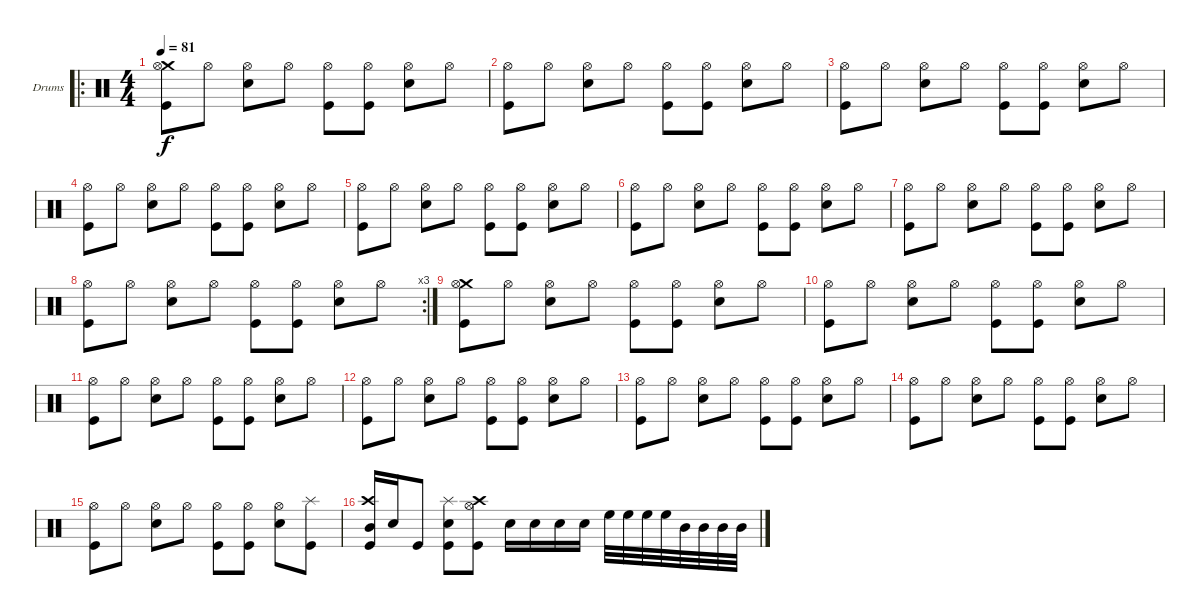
\bracketExtendMode groupsimilarinstruments
\firstSystemTrackNameOrientation horizontal
\otherSystemsTrackNameOrientation horizontal
\track ("Drumkit" "Drums") {instrument percussion}
\staff {score}
\articulation defaults
\ro
\ts (4 4)
\tempo 81
\clef neutral
\ks c
("Crash medium (hit)" "Hi-Hat (open)" "Kick (hit)").8{dy f} "Hi-Hat (open)".8 ("Hi-Hat (open)" "Snare (hit) 2").8 "Hi-Hat (open)".8 ("Hi-Hat (open)" "Kick (hit)").8 ("Hi-Hat (open)" "Kick (hit)").8 ("Hi-Hat (open)" "Snare (hit) 2").8 "Hi-Hat (open)".8 |
("Hi-Hat (open)" "Kick (hit)").8 "Hi-Hat (open)".8 ("Hi-Hat (open)" "Snare (hit) 2").8 "Hi-Hat (open)".8 ("Hi-Hat (open)" "Kick (hit)").8 ("Hi-Hat (open)" "Kick (hit)").8 ("Hi-Hat (open)" "Snare (hit) 2").8 "Hi-Hat (open)".8 |
("Hi-Hat (open)" "Kick (hit)").8 "Hi-Hat (open)".8 ("Hi-Hat (open)" "Snare (hit) 2").8 "Hi-Hat (open)".8 ("Hi-Hat (open)" "Kick (hit)").8 ("Hi-Hat (open)" "Kick (hit)").8 ("Hi-Hat (open)" "Snare (hit) 2").8 "Hi-Hat (open)".8 |
("Hi-Hat (open)" "Kick (hit)").8 "Hi-Hat (open)".8 ("Hi-Hat (open)" "Snare (hit) 2").8 "Hi-Hat (open)".8 ("Hi-Hat (open)" "Kick (hit)").8 ("Hi-Hat (open)" "Kick (hit)").8 ("Hi-Hat (open)" "Snare (hit) 2").8 "Hi-Hat (open)".8 |
("Hi-Hat (open)" "Kick (hit)").8 "Hi-Hat (open)".8 ("Hi-Hat (open)" "Snare (hit) 2").8 "Hi-Hat (open)".8 ("Hi-Hat (open)" "Kick (hit)").8 ("Hi-Hat (open)" "Kick (hit)").8 ("Hi-Hat (open)" "Snare (hit) 2").8 "Hi-Hat (open)".8 |
("Hi-Hat (open)" "Kick (hit)").8 "Hi-Hat (open)".8 ("Hi-Hat (open)" "Snare (hit) 2").8 "Hi-Hat (open)".8 ("Hi-Hat (open)" "Kick (hit)").8 ("Hi-Hat (open)" "Kick (hit)").8 ("Hi-Hat (open)" "Snare (hit) 2").8 "Hi-Hat (open)".8 |
("Hi-Hat (open)" "Kick (hit)").8 "Hi-Hat (open)".8 ("Hi-Hat (open)" "Snare (hit) 2").8 "Hi-Hat (open)".8 ("Hi-Hat (open)" "Kick (hit)").8 ("Hi-Hat (open)" "Kick (hit)").8 ("Hi-Hat (open)" "Snare (hit) 2").8 "Hi-Hat (open)".8 |
\rc 3
("Hi-Hat (open)" "Kick (hit)").8 "Hi-Hat (open)".8 ("Hi-Hat (open)" "Snare (hit) 2").8 "Hi-Hat (open)".8 ("Hi-Hat (open)" "Kick (hit)").8 ("Hi-Hat (open)" "Kick (hit)").8 ("Hi-Hat (open)" "Snare (hit) 2").8 "Hi-Hat (open)".8 |
("Crash medium (hit)" "Hi-Hat (open)" "Kick (hit)").8 "Hi-Hat (open)".8 ("Hi-Hat (open)" "Snare (hit) 2").8 "Hi-Hat (open)".8 ("Hi-Hat (open)" "Kick (hit)").8 ("Hi-Hat (open)" "Kick (hit)").8 ("Hi-Hat (open)" "Snare (hit) 2").8 "Hi-Hat (open)".8 |
("Hi-Hat (open)" "Kick (hit)").8 "Hi-Hat (open)".8 ("Hi-Hat (open)" "Snare (hit) 2").8 "Hi-Hat (open)".8 ("Hi-Hat (open)" "Kick (hit)").8 ("Hi-Hat (open)" "Kick (hit)").8 ("Hi-Hat (open)" "Snare (hit) 2").8 "Hi-Hat (open)".8 |
("Hi-Hat (open)" "Kick (hit)").8 "Hi-Hat (open)".8 ("Hi-Hat (open)" "Snare (hit) 2").8 "Hi-Hat (open)".8 ("Hi-Hat (open)" "Kick (hit)").8 ("Hi-Hat (open)" "Kick (hit)").8 ("Hi-Hat (open)" "Snare (hit) 2").8 "Hi-Hat (open)".8 |
("Hi-Hat (open)" "Kick (hit)").8 "Hi-Hat (open)".8 ("Hi-Hat (open)" "Snare (hit) 2").8 "Hi-Hat (open)".8 ("Hi-Hat (open)" "Kick (hit)").8 ("Hi-Hat (open)" "Kick (hit)").8 ("Hi-Hat (open)" "Snare (hit) 2").8 "Hi-Hat (open)".8 |
("Hi-Hat (open)" "Kick (hit)").8 "Hi-Hat (open)".8 ("Hi-Hat (open)" "Snare (hit) 2").8 "Hi-Hat (open)".8 ("Hi-Hat (open)" "Kick (hit)").8 ("Hi-Hat (open)" "Kick (hit)").8 ("Hi-Hat (open)" "Snare (hit) 2").8 "Hi-Hat (open)".8 |
("Hi-Hat (open)" "Kick (hit)").8 "Hi-Hat (open)".8 ("Hi-Hat (open)" "Snare (hit) 2").8 "Hi-Hat (open)".8 ("Hi-Hat (open)" "Kick (hit)").8 ("Hi-Hat (open)" "Kick (hit)").8 ("Hi-Hat (open)" "Snare (hit) 2").8 "Hi-Hat (open)".8 |
("Hi-Hat (open)" "Kick (hit)").8 "Hi-Hat (open)".8 ("Hi-Hat (open)" "Snare (hit) 2").8 "Hi-Hat (open)".8 ("Hi-Hat (open)" "Kick (hit)").8 ("Hi-Hat (open)" "Kick (hit)").8 ("Hi-Hat (open)" "Snare (hit) 2").8 ("Splash (hit)" "Kick (hit)").8 |
("Crash high (hit)" "Mid Tom (hit)" "Kick (hit)").16 "Snare (hit) 2".16 "Kick (hit)".8 ("Splash (hit)" "Snare (hit) 2" "Kick (hit)").8 ("Crash high (hit)" "Hi-Hat (open)" "Kick (hit)").8 "Snare (hit) 2".16 "Snare (hit) 2".16 "Snare (hit) 2".16 "Snare (hit) 2".16 "High Floor Tom (hit)".32 "High Floor Tom (hit)".32 "High Floor Tom (hit)".32 "High Floor Tom (hit)".32 "Mid Tom (hit)".32 "Mid Tom (hit)".32 "Mid Tom (hit)".32 "Mid Tom (hit)".32
